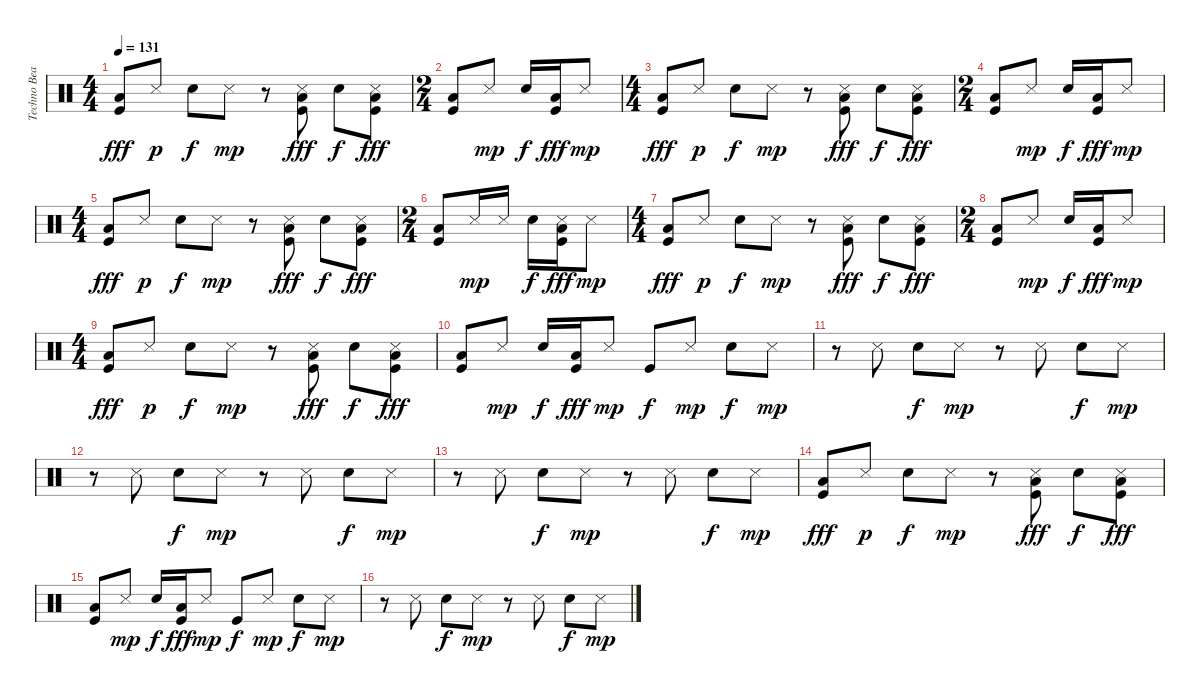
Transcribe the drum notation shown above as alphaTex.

\track ("Techno Beat" "Techno Bea") {instrument percussion}
\staff {score}
\articulation defaults
\ts (4 4)
\tempo 131
\clef neutral
\ks c
("Low Tom (hit)" "Kick (hit)").8{dy fff} "Snare (side stick) 3".8{dy p} "Electric Snare (hit)".8{dy f} "Snare (side stick) 3".8{dy mp} r.8 ("Snare (side stick) 3" "Low Tom (hit)" "Kick (hit)").8{dy fff} "Electric Snare (hit)".8{dy f} ("Snare (side stick) 3" "Low Tom (hit)" "Kick (hit)").8{dy fff} |
\ts (2 4)
("Low Tom (hit)" "Kick (hit)").8 "Snare (side stick) 3".8{dy mp} "Electric Snare (hit)".16{dy f} ("Low Tom (hit)" "Kick (hit)").16{dy fff} "Snare (side stick) 3".8{dy mp} |
\ts (4 4)
("Low Tom (hit)" "Kick (hit)").8{dy fff} "Snare (side stick) 3".8{dy p} "Electric Snare (hit)".8{dy f} "Snare (side stick) 3".8{dy mp} r.8 ("Snare (side stick) 3" "Low Tom (hit)" "Kick (hit)").8{dy fff} "Electric Snare (hit)".8{dy f} ("Snare (side stick) 3" "Low Tom (hit)" "Kick (hit)").8{dy fff} |
\ts (2 4)
("Low Tom (hit)" "Kick (hit)").8 "Snare (side stick) 3".8{dy mp} "Electric Snare (hit)".16{dy f} ("Low Tom (hit)" "Kick (hit)").16{dy fff} "Snare (side stick) 3".8{dy mp} |
\ts (4 4)
("Low Tom (hit)" "Kick (hit)").8{dy fff} "Snare (side stick) 3".8{dy p} "Electric Snare (hit)".8{dy f} "Snare (side stick) 3".8{dy mp} r.8 ("Snare (side stick) 3" "Low Tom (hit)" "Kick (hit)").8{dy fff} "Electric Snare (hit)".8{dy f} ("Snare (side stick) 3" "Low Tom (hit)" "Kick (hit)").8{dy fff} |
\ts (2 4)
("Low Tom (hit)" "Kick (hit)").8 "Snare (side stick) 3".16{dy mp} "Snare (side stick) 3".16 "Electric Snare (hit)".16{dy f} ("Snare (side stick) 3" "Low Tom (hit)" "Kick (hit)").16{dy fff} "Snare (side stick) 3".8{dy mp} |
\ts (4 4)
("Low Tom (hit)" "Kick (hit)").8{dy fff} "Snare (side stick) 3".8{dy p} "Electric Snare (hit)".8{dy f} "Snare (side stick) 3".8{dy mp} r.8 ("Snare (side stick) 3" "Low Tom (hit)" "Kick (hit)").8{dy fff} "Electric Snare (hit)".8{dy f} ("Snare (side stick) 3" "Low Tom (hit)" "Kick (hit)").8{dy fff} |
\ts (2 4)
("Low Tom (hit)" "Kick (hit)").8 "Snare (side stick) 3".8{dy mp} "Electric Snare (hit)".16{dy f} ("Low Tom (hit)" "Kick (hit)").16{dy fff} "Snare (side stick) 3".8{dy mp} |
\ts (4 4)
("Low Tom (hit)" "Kick (hit)").8{dy fff} "Snare (side stick) 3".8{dy p} "Electric Snare (hit)".8{dy f} "Snare (side stick) 3".8{dy mp} r.8 ("Snare (side stick) 3" "Low Tom (hit)" "Kick (hit)").8{dy fff} "Electric Snare (hit)".8{dy f} ("Snare (side stick) 3" "Low Tom (hit)" "Kick (hit)").8{dy fff} |
("Low Tom (hit)" "Kick (hit)").8 "Snare (side stick) 3".8{dy mp} "Electric Snare (hit)".16{dy f} ("Low Tom (hit)" "Kick (hit)").16{dy fff} "Snare (side stick) 3".8{dy mp} "Kick (hit)".8{dy f} "Snare (side stick) 3".8{dy mp} "Electric Snare (hit)".8{dy f} "Snare (side stick) 3".8{dy mp} |
r.8 "Snare (side stick) 3".8 "Electric Snare (hit)".8{dy f} "Snare (side stick) 3".8{dy mp} r.8 "Snare (side stick) 3".8 "Electric Snare (hit)".8{dy f} "Snare (side stick) 3".8{dy mp} |
r.8 "Snare (side stick) 3".8 "Electric Snare (hit)".8{dy f} "Snare (side stick) 3".8{dy mp} r.8 "Snare (side stick) 3".8 "Electric Snare (hit)".8{dy f} "Snare (side stick) 3".8{dy mp} |
r.8 "Snare (side stick) 3".8 "Electric Snare (hit)".8{dy f} "Snare (side stick) 3".8{dy mp} r.8 "Snare (side stick) 3".8 "Electric Snare (hit)".8{dy f} "Snare (side stick) 3".8{dy mp} |
("Low Tom (hit)" "Kick (hit)").8{dy fff} "Snare (side stick) 3".8{dy p} "Electric Snare (hit)".8{dy f} "Snare (side stick) 3".8{dy mp} r.8 ("Snare (side stick) 3" "Low Tom (hit)" "Kick (hit)").8{dy fff} "Electric Snare (hit)".8{dy f} ("Snare (side stick) 3" "Low Tom (hit)" "Kick (hit)").8{dy fff} |
("Low Tom (hit)" "Kick (hit)").8 "Snare (side stick) 3".8{dy mp} "Electric Snare (hit)".16{dy f} ("Low Tom (hit)" "Kick (hit)").16{dy fff} "Snare (side stick) 3".8{dy mp} "Kick (hit)".8{dy f} "Snare (side stick) 3".8{dy mp} "Electric Snare (hit)".8{dy f} "Snare (side stick) 3".8{dy mp} |
r.8 "Snare (side stick) 3".8 "Electric Snare (hit)".8{dy f} "Snare (side stick) 3".8{dy mp} r.8 "Snare (side stick) 3".8 "Electric Snare (hit)".8{dy f} "Snare (side stick) 3".8{dy mp}
